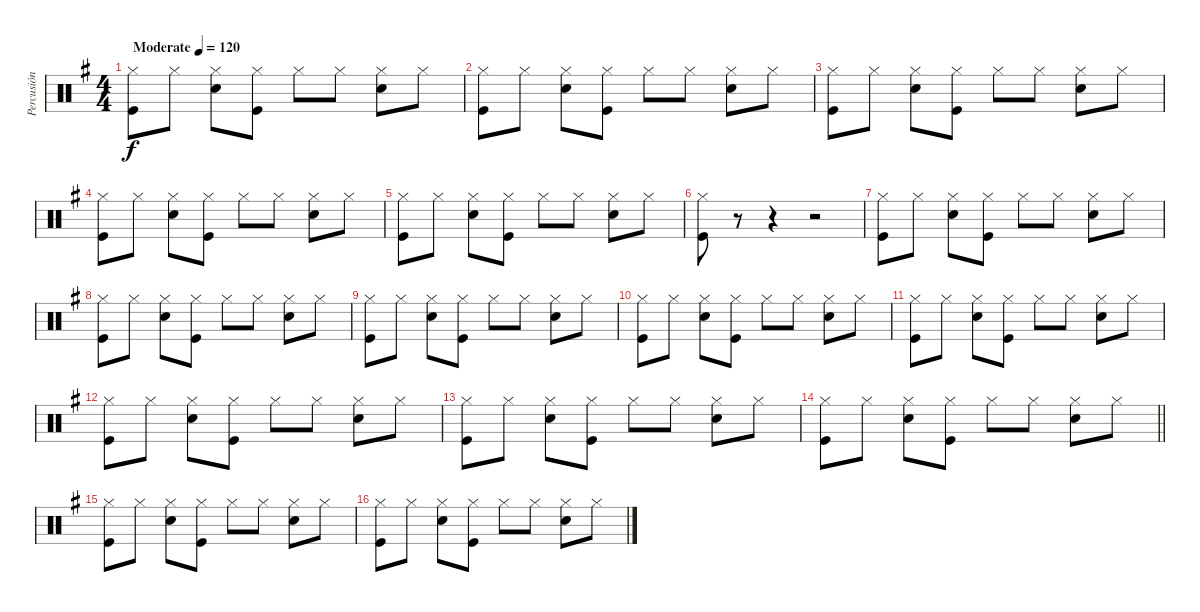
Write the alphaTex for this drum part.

\track ("Percusión" "Percusión") {instrument percussion}
\staff {score}
\articulation defaults
\ts (4 4)
\tempo (120 "Moderate")
\clef neutral
\ks g
("Hi-Hat (closed)" "Kick (hit)").8{dy f} "Hi-Hat (closed)".8 ("Hi-Hat (closed)" "Electric Snare (hit)").8 ("Hi-Hat (closed)" "Kick (hit)").8 "Hi-Hat (closed)".8 "Hi-Hat (closed)".8 ("Hi-Hat (closed)" "Electric Snare (hit)").8 "Hi-Hat (closed)".8 |
("Hi-Hat (closed)" "Kick (hit)").8 "Hi-Hat (closed)".8 ("Hi-Hat (closed)" "Electric Snare (hit)").8 ("Hi-Hat (closed)" "Kick (hit)").8 "Hi-Hat (closed)".8 "Hi-Hat (closed)".8 ("Hi-Hat (closed)" "Electric Snare (hit)").8 "Hi-Hat (closed)".8 |
("Hi-Hat (closed)" "Kick (hit)").8 "Hi-Hat (closed)".8 ("Hi-Hat (closed)" "Electric Snare (hit)").8 ("Hi-Hat (closed)" "Kick (hit)").8 "Hi-Hat (closed)".8 "Hi-Hat (closed)".8 ("Hi-Hat (closed)" "Electric Snare (hit)").8 "Hi-Hat (closed)".8 |
("Hi-Hat (closed)" "Kick (hit)").8 "Hi-Hat (closed)".8 ("Hi-Hat (closed)" "Electric Snare (hit)").8 ("Hi-Hat (closed)" "Kick (hit)").8 "Hi-Hat (closed)".8 "Hi-Hat (closed)".8 ("Hi-Hat (closed)" "Electric Snare (hit)").8 "Hi-Hat (closed)".8 |
("Hi-Hat (closed)" "Kick (hit)").8 "Hi-Hat (closed)".8 ("Hi-Hat (closed)" "Electric Snare (hit)").8 ("Hi-Hat (closed)" "Kick (hit)").8 "Hi-Hat (closed)".8 "Hi-Hat (closed)".8 ("Hi-Hat (closed)" "Electric Snare (hit)").8 "Hi-Hat (closed)".8 |
("Hi-Hat (closed)" "Kick (hit)").8 r.8 r.4 r.2 |
("Hi-Hat (closed)" "Kick (hit)").8 "Hi-Hat (closed)".8 ("Hi-Hat (closed)" "Electric Snare (hit)").8 ("Hi-Hat (closed)" "Kick (hit)").8 "Hi-Hat (closed)".8 "Hi-Hat (closed)".8 ("Hi-Hat (closed)" "Electric Snare (hit)").8 "Hi-Hat (closed)".8 |
("Hi-Hat (closed)" "Kick (hit)").8 "Hi-Hat (closed)".8 ("Hi-Hat (closed)" "Electric Snare (hit)").8 ("Hi-Hat (closed)" "Kick (hit)").8 "Hi-Hat (closed)".8 "Hi-Hat (closed)".8 ("Hi-Hat (closed)" "Electric Snare (hit)").8 "Hi-Hat (closed)".8 |
("Hi-Hat (closed)" "Kick (hit)").8 "Hi-Hat (closed)".8 ("Hi-Hat (closed)" "Electric Snare (hit)").8 ("Hi-Hat (closed)" "Kick (hit)").8 "Hi-Hat (closed)".8 "Hi-Hat (closed)".8 ("Hi-Hat (closed)" "Electric Snare (hit)").8 "Hi-Hat (closed)".8 |
("Hi-Hat (closed)" "Kick (hit)").8 "Hi-Hat (closed)".8 ("Hi-Hat (closed)" "Electric Snare (hit)").8 ("Hi-Hat (closed)" "Kick (hit)").8 "Hi-Hat (closed)".8 "Hi-Hat (closed)".8 ("Hi-Hat (closed)" "Electric Snare (hit)").8 "Hi-Hat (closed)".8 |
("Hi-Hat (closed)" "Kick (hit)").8 "Hi-Hat (closed)".8 ("Hi-Hat (closed)" "Electric Snare (hit)").8 ("Hi-Hat (closed)" "Kick (hit)").8 "Hi-Hat (closed)".8 "Hi-Hat (closed)".8 ("Hi-Hat (closed)" "Electric Snare (hit)").8 "Hi-Hat (closed)".8 |
("Hi-Hat (closed)" "Kick (hit)").8 "Hi-Hat (closed)".8 ("Hi-Hat (closed)" "Electric Snare (hit)").8 ("Hi-Hat (closed)" "Kick (hit)").8 "Hi-Hat (closed)".8 "Hi-Hat (closed)".8 ("Hi-Hat (closed)" "Electric Snare (hit)").8 "Hi-Hat (closed)".8 |
("Hi-Hat (closed)" "Kick (hit)").8 "Hi-Hat (closed)".8 ("Hi-Hat (closed)" "Electric Snare (hit)").8 ("Hi-Hat (closed)" "Kick (hit)").8 "Hi-Hat (closed)".8 "Hi-Hat (closed)".8 ("Hi-Hat (closed)" "Electric Snare (hit)").8 "Hi-Hat (closed)".8 |
\barLineRight lightlight
("Hi-Hat (closed)" "Kick (hit)").8 "Hi-Hat (closed)".8 ("Hi-Hat (closed)" "Electric Snare (hit)").8 ("Hi-Hat (closed)" "Kick (hit)").8 "Hi-Hat (closed)".8 "Hi-Hat (closed)".8 ("Hi-Hat (closed)" "Electric Snare (hit)").8 "Hi-Hat (closed)".8 |
("Hi-Hat (closed)" "Kick (hit)").8 "Hi-Hat (closed)".8 ("Hi-Hat (closed)" "Electric Snare (hit)").8 ("Hi-Hat (closed)" "Kick (hit)").8 "Hi-Hat (closed)".8 "Hi-Hat (closed)".8 ("Hi-Hat (closed)" "Electric Snare (hit)").8 "Hi-Hat (closed)".8 |
("Hi-Hat (closed)" "Kick (hit)").8 "Hi-Hat (closed)".8 ("Hi-Hat (closed)" "Electric Snare (hit)").8 ("Hi-Hat (closed)" "Kick (hit)").8 "Hi-Hat (closed)".8 "Hi-Hat (closed)".8 ("Hi-Hat (closed)" "Electric Snare (hit)").8 "Hi-Hat (closed)".8
